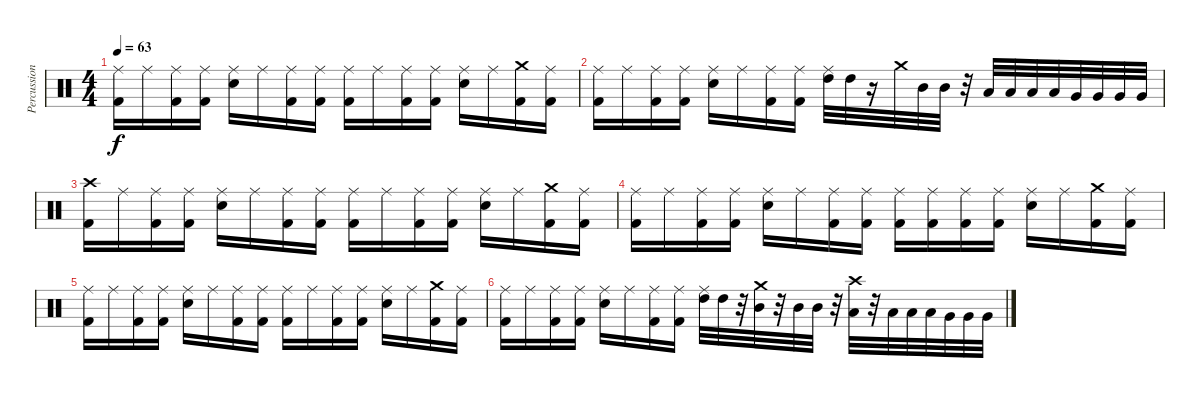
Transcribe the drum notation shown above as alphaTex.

\track ("Percussion" "Percussion") {instrument percussion}
\staff {score}
\articulation defaults
\ts (4 4)
\tempo 63
\clef neutral
\ks c
("Ride (middle)" "Kick (hit) 2").16{dy f} "Ride (middle)".16 ("Ride (middle)" "Kick (hit) 2").16 ("Ride (middle)" "Kick (hit) 2").16 ("Ride (middle)" "Electric Snare (hit)").16 "Ride (middle)".16 ("Ride (middle)" "Kick (hit) 2").16 ("Ride (middle)" "Kick (hit) 2").16 ("Ride (middle)" "Kick (hit) 2").16 "Ride (middle)".16 ("Ride (middle)" "Kick (hit) 2").16 ("Ride (middle)" "Kick (hit) 2").16 ("Ride (middle)" "Electric Snare (hit)").16 "Ride (middle)".16 ("Crash medium (hit)" "Kick (hit) 2").16 ("Ride (middle)" "Kick (hit) 2").16 |
("Ride (middle)" "Kick (hit) 2").16 "Ride (middle)".16 ("Ride (middle)" "Kick (hit) 2").16 ("Ride (middle)" "Kick (hit) 2").16 ("Ride (middle)" "Electric Snare (hit)").16 "Ride (middle)".16 ("Ride (middle)" "Kick (hit) 2").16 ("Ride (middle)" "Kick (hit) 2").16 ("Ride (middle)" "High Tom (hit)").32 "High Tom (hit)".32 r.16 "Crash medium (hit)".32 "Mid Tom (hit)".32 "Mid Tom (hit)".32 r.32 "Low Tom (hit)".32 "Low Tom (hit)".32 "Low Tom (hit)".32 "Low Tom (hit)".32 "Very Low Tom (hit)".32 "Very Low Tom (hit)".32 "Very Low Tom (hit)".32 "Very Low Tom (hit)".32 |
("Crash high (hit)" "Kick (hit) 2").16{volume 0} "Ride (middle)".16 ("Ride (middle)" "Kick (hit) 2").16 ("Ride (middle)" "Kick (hit) 2").16 ("Ride (middle)" "Electric Snare (hit)").16 "Ride (middle)".16 ("Ride (middle)" "Kick (hit) 2").16 ("Ride (middle)" "Kick (hit) 2").16 ("Ride (middle)" "Kick (hit) 2").16 "Ride (middle)".16 ("Ride (middle)" "Kick (hit) 2").16 ("Ride (middle)" "Kick (hit) 2").16 ("Ride (middle)" "Electric Snare (hit)").16 "Ride (middle)".16 ("Crash medium (hit)" "Kick (hit) 2").16 ("Ride (middle)" "Kick (hit) 2").16 |
("Ride (middle)" "Kick (hit) 2").16 "Ride (middle)".16 ("Ride (middle)" "Kick (hit) 2").16 ("Ride (middle)" "Kick (hit) 2").16 ("Ride (middle)" "Electric Snare (hit)").16 "Ride (middle)".16 ("Ride (middle)" "Kick (hit) 2").16 ("Ride (middle)" "Kick (hit) 2").16 ("Ride (middle)" "Kick (hit) 2").16 ("Ride (middle)" "Kick (hit) 2").16 ("Ride (middle)" "Kick (hit) 2").16 ("Ride (middle)" "Kick (hit) 2").16 ("Ride (middle)" "Electric Snare (hit)").16 "Ride (middle)".16 ("Crash medium (hit)" "Kick (hit) 2").16 ("Ride (middle)" "Kick (hit) 2").16 |
("Ride (middle)" "Kick (hit) 2").16 "Ride (middle)".16 ("Ride (middle)" "Kick (hit) 2").16 ("Ride (middle)" "Kick (hit) 2").16 ("Ride (middle)" "Electric Snare (hit)").16 "Ride (middle)".16 ("Ride (middle)" "Kick (hit) 2").16 ("Ride (middle)" "Kick (hit) 2").16 ("Ride (middle)" "Kick (hit) 2").16 "Ride (middle)".16 ("Ride (middle)" "Kick (hit) 2").16 ("Ride (middle)" "Kick (hit) 2").16 ("Ride (middle)" "Electric Snare (hit)").16 "Ride (middle)".16 ("Crash medium (hit)" "Kick (hit) 2").16 ("Ride (middle)" "Kick (hit) 2").16 |
("Ride (middle)" "Kick (hit) 2").16 "Ride (middle)".16 ("Ride (middle)" "Kick (hit) 2").16 ("Ride (middle)" "Kick (hit) 2").16 ("Ride (middle)" "Electric Snare (hit)").16 "Ride (middle)".16 ("Ride (middle)" "Kick (hit) 2").16 ("Ride (middle)" "Kick (hit) 2").16 ("Ride (middle)" "High Tom (hit)").32 "High Tom (hit)".32 r.32 ("Crash medium (hit)" "Mid Tom (hit)").32 r.32 "Mid Tom (hit)".32 "Mid Tom (hit)".32 r.32 ("Crash high (hit)" "Low Tom (hit)").32 r.32 "Low Tom (hit)".32 "Low Tom (hit)".32 "Low Tom (hit)".32 "Very Low Tom (hit)".32 "Very Low Tom (hit)".32 "Very Low Tom (hit)".32
